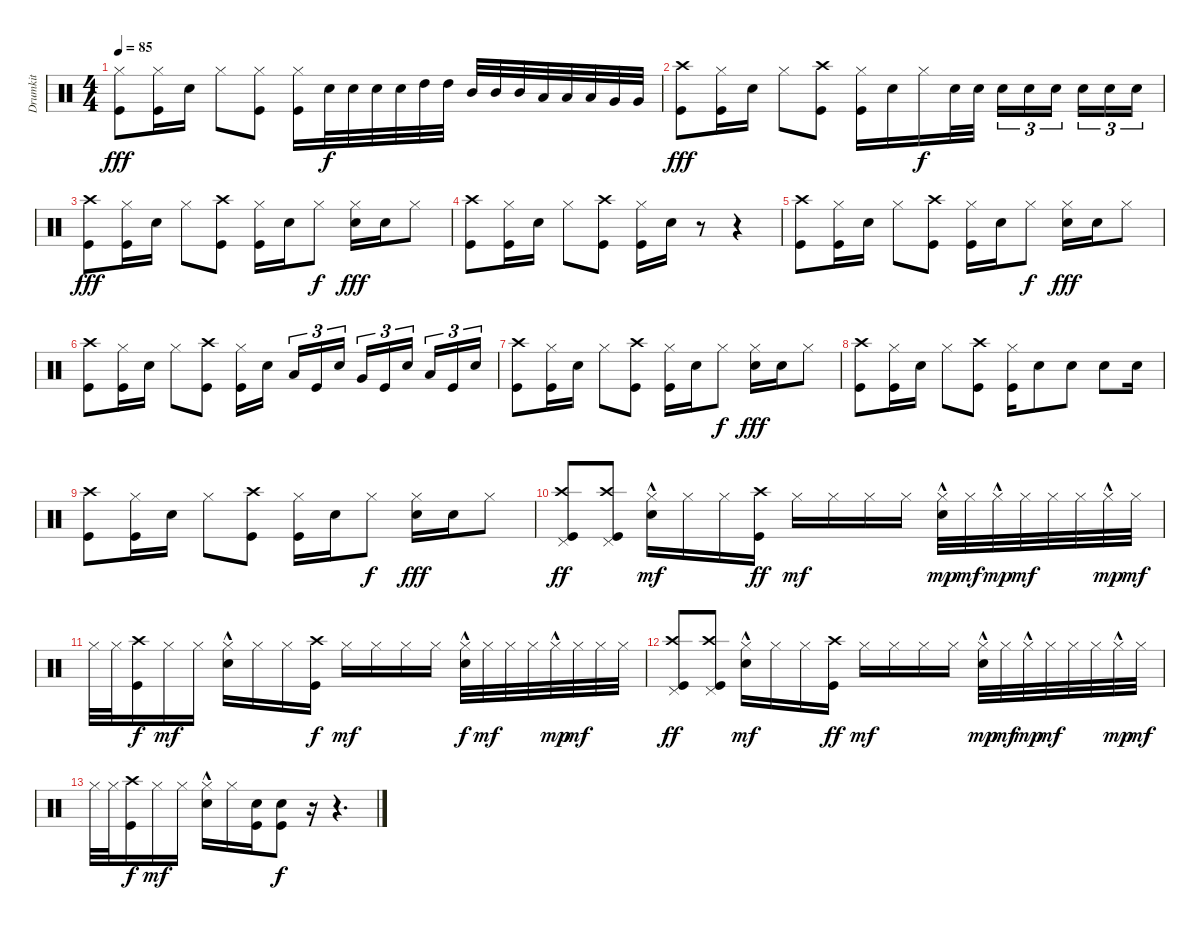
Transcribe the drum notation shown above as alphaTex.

\track ("Drumkit" "Drumkit") {instrument percussion}
\staff {score}
\articulation defaults
\ts (4 4)
\tempo 85
\clef neutral
\ks c
("Hi-Hat (closed)" "Kick (hit)").8{dy fff} ("Hi-Hat (closed)" "Kick (hit)").16 "Snare (hit) 2".16 "Hi-Hat (closed)".8 ("Hi-Hat (closed)" "Kick (hit)").8 ("Hi-Hat (closed)" "Kick (hit)").16 "Snare (hit) 2".32{dy f} "Snare (hit) 2".32 "Snare (hit) 2".32 "Snare (hit) 2".32 "High Tom (hit)".32 "High Tom (hit)".32 "Mid Tom (hit)".32 "Mid Tom (hit)".32 "Mid Tom (hit)".32 "Low Tom (hit)".32 "Low Tom (hit)".32 "Low Tom (hit)".32 "Very Low Tom (hit)".32 "Very Low Tom (hit)".32 |
("Kick (hit)" "Crash high (hit)").8{dy fff} ("Hi-Hat (closed)" "Kick (hit)").16 "Snare (hit) 2".16 "Hi-Hat (closed)".8 ("Kick (hit)" "Crash high (hit)").8 ("Hi-Hat (closed)" "Kick (hit)").16 "Snare (hit) 2".16 "Hi-Hat (closed)".16{dy f} "Snare (hit) 2".32 "Snare (hit) 2".32 "Snare (hit) 2".16{tu (3 2)} "Snare (hit) 2".16{tu (3 2)} "Snare (hit) 2".16{tu (3 2)} "Snare (hit) 2".16{tu (3 2)} "Snare (hit) 2".16{tu (3 2)} "Snare (hit) 2".16{tu (3 2)} |
("Kick (hit)" "Crash high (hit)").8{dy fff} ("Hi-Hat (closed)" "Kick (hit)").16 "Snare (hit) 2".16 "Hi-Hat (closed)".8 ("Kick (hit)" "Crash high (hit)").8 ("Hi-Hat (closed)" "Kick (hit)").16 "Snare (hit) 2".16 "Hi-Hat (closed)".8{dy f} ("Hi-Hat (closed)" "Snare (hit) 2").16{dy fff} "Snare (hit) 2".16 "Hi-Hat (closed)".8 |
("Kick (hit)" "Crash high (hit)").8 ("Hi-Hat (closed)" "Kick (hit)").16 "Snare (hit) 2".16 "Hi-Hat (closed)".8 ("Kick (hit)" "Crash high (hit)").8 ("Hi-Hat (closed)" "Kick (hit)").16 "Snare (hit) 2".16 r.8 r.4 |
("Kick (hit)" "Crash high (hit)").8 ("Hi-Hat (closed)" "Kick (hit)").16 "Snare (hit) 2".16 "Hi-Hat (closed)".8 ("Kick (hit)" "Crash high (hit)").8 ("Hi-Hat (closed)" "Kick (hit)").16 "Snare (hit) 2".16 "Hi-Hat (closed)".8{dy f} ("Hi-Hat (closed)" "Snare (hit) 2").16{dy fff} "Snare (hit) 2".16 "Hi-Hat (closed)".8 |
("Kick (hit)" "Crash high (hit)").8 ("Hi-Hat (closed)" "Kick (hit)").16 "Snare (hit) 2".16 "Hi-Hat (closed)".8 ("Kick (hit)" "Crash high (hit)").8 ("Hi-Hat (closed)" "Kick (hit)").16 "Snare (hit) 2".16 "Low Tom (hit)".16{tu (3 2)} "Kick (hit)".16{tu (3 2)} "Snare (hit) 2".16{tu (3 2)} "Very Low Tom (hit)".16{tu (3 2)} "Kick (hit)".16{tu (3 2)} "Snare (hit) 2".16{tu (3 2)} "Low Floor Tom (hit)".16{tu (3 2)} "Kick (hit)".16{tu (3 2)} "Snare (hit) 2".16{tu (3 2)} |
("Kick (hit)" "Crash high (hit)").8 ("Hi-Hat (closed)" "Kick (hit)").16 "Snare (hit) 2".16 "Hi-Hat (closed)".8 ("Kick (hit)" "Crash high (hit)").8 ("Hi-Hat (closed)" "Kick (hit)").16 "Snare (hit) 2".16 "Hi-Hat (closed)".8{dy f} ("Hi-Hat (closed)" "Snare (hit) 2").16{dy fff} "Snare (hit) 2".16 "Hi-Hat (closed)".8 |
("Kick (hit)" "Crash high (hit)").8 ("Hi-Hat (closed)" "Kick (hit)").16 "Snare (hit) 2".16 "Hi-Hat (closed)".8 ("Kick (hit)" "Crash high (hit)").8 ("Hi-Hat (closed)" "Kick (hit)").16 "Snare (hit) 2".8 "Snare (hit) 2".8 "Snare (hit) 2".8 "Snare (hit) 2".16 |
("Kick (hit)" "Crash high (hit)").8 ("Hi-Hat (closed)" "Kick (hit)").16 "Snare (hit) 2".16 "Hi-Hat (closed)".8 ("Kick (hit)" "Crash high (hit)").8 ("Hi-Hat (closed)" "Kick (hit)").16 "Snare (hit) 2".16 "Hi-Hat (closed)".8{dy f} ("Hi-Hat (closed)" "Snare (hit) 2").16{dy fff} "Snare (hit) 2".16 "Hi-Hat (closed)".8 |
("Kick (hit)" "Pedal Hi-Hat (hit)" "Crash high (hit)").8{dy ff} ("Kick (hit)" "Pedal Hi-Hat (hit)" "Crash high (hit)").8 ("Snare (hit) 2"{hac} "Hi-Hat (closed)").16{dy mf} "Hi-Hat (closed)".16 "Hi-Hat (closed)".16 ("Kick (hit)" "Crash high (hit)").16{dy ff} "Hi-Hat (closed)".16{dy mf} "Hi-Hat (closed)".16 "Hi-Hat (closed)".16 "Hi-Hat (closed)".16 ("Hi-Hat (closed)" "Snare (hit) 2"{hac}).32{dy mp} "Hi-Hat (closed)".32{dy mf} "Hi-Hat (closed)"{hac}.32{dy mp} "Hi-Hat (closed)".32{dy mf} "Hi-Hat (closed)".32 "Hi-Hat (closed)".32 "Hi-Hat (closed)"{hac}.32{dy mp} "Hi-Hat (closed)".32{dy mf} |
"Hi-Hat (closed)".32 "Hi-Hat (closed)".32 ("Kick (hit)" "Crash high (hit)").16{dy f} "Hi-Hat (closed)".16{dy mf} "Hi-Hat (closed)".16 ("Snare (hit) 2"{hac} "Hi-Hat (closed)").16 "Hi-Hat (closed)".16 "Hi-Hat (closed)".16 ("Kick (hit)" "Crash high (hit)").16{dy f} "Hi-Hat (closed)".16{dy mf} "Hi-Hat (closed)".16 "Hi-Hat (closed)".16 "Hi-Hat (closed)".16 ("Snare (hit) 2"{hac} "Hi-Hat (closed)"{hac}).32{dy f} "Hi-Hat (closed)".32{dy mf} "Hi-Hat (closed)".32 "Hi-Hat (closed)".32 "Hi-Hat (closed)"{hac}.32{dy mp} "Hi-Hat (closed)".32{dy mf} "Hi-Hat (closed)".32 "Hi-Hat (closed)".32 |
("Kick (hit)" "Pedal Hi-Hat (hit)" "Crash high (hit)").8{dy ff} ("Kick (hit)" "Pedal Hi-Hat (hit)" "Crash high (hit)").8 ("Snare (hit) 2"{hac} "Hi-Hat (closed)").16{dy mf} "Hi-Hat (closed)".16 "Hi-Hat (closed)".16 ("Kick (hit)" "Crash high (hit)").16{dy ff} "Hi-Hat (closed)".16{dy mf} "Hi-Hat (closed)".16 "Hi-Hat (closed)".16 "Hi-Hat (closed)".16 ("Hi-Hat (closed)" "Snare (hit) 2"{hac}).32{dy mp} "Hi-Hat (closed)".32{dy mf} "Hi-Hat (closed)"{hac}.32{dy mp} "Hi-Hat (closed)".32{dy mf} "Hi-Hat (closed)".32 "Hi-Hat (closed)".32 "Hi-Hat (closed)"{hac}.32{dy mp} "Hi-Hat (closed)".32{dy mf} |
"Hi-Hat (closed)".32 "Hi-Hat (closed)".32 ("Kick (hit)" "Crash high (hit)").16{dy f} "Hi-Hat (closed)".16{dy mf} "Hi-Hat (closed)".16 ("Snare (hit) 2"{hac} "Hi-Hat (closed)").16 "Hi-Hat (closed)".16 ("Snare (hit) 2" "Kick (hit)").16 ("Kick (hit)" "Snare (hit) 2").8{dy f} r.16 r.4{d}
